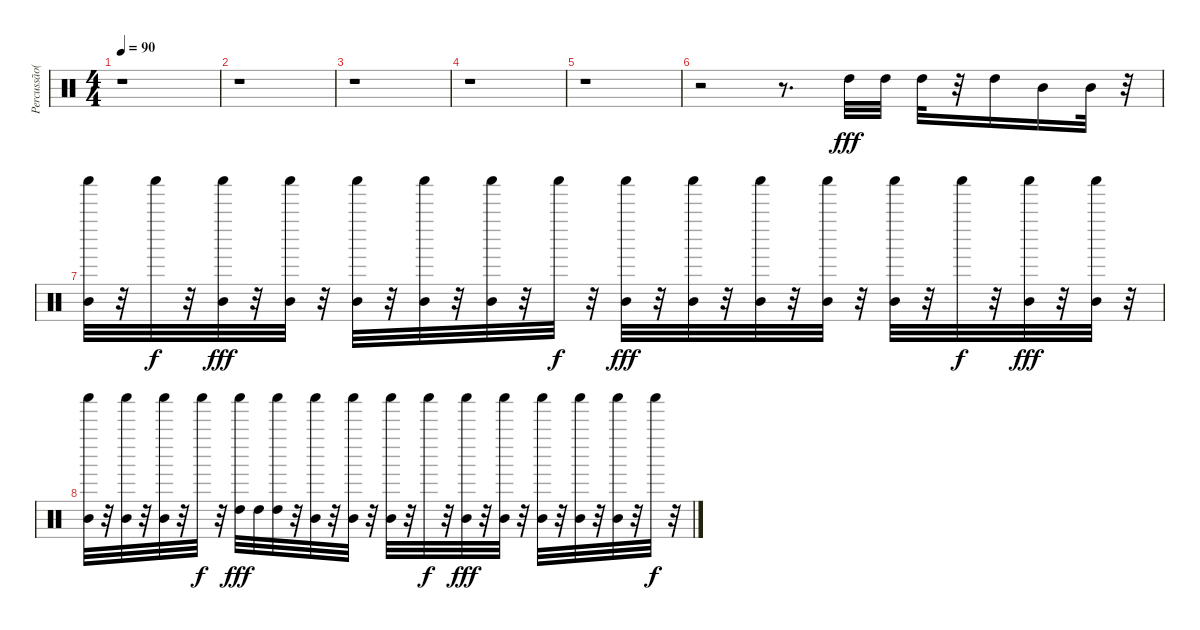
\track ("Percussão(Percussion)-1" "Percussão(") {instrument percussion}
\staff {score}
\articulation defaults
\ts (4 4)
\tempo 90
\clef neutral
\ks c
r.1{dy fff} |
r.1 |
r.1 |
r.1 |
r.1 |
r.2 r.8{d} "High Tom (hit)".32 "High Tom (hit)".32 "High Tom (hit)".32 r.32 "High Tom (hit)".16 "Mid Tom (hit)".16 "Mid Tom (hit)".32 r.32 |
("Mid Tom (hit)" "Shaker (hit)").32 r.32 "Shaker (hit)".32{dy f} r.32 ("Mid Tom (hit)" "Shaker (hit)").32{dy fff} r.32 ("Mid Tom (hit)" "Shaker (hit)").32 r.32 ("Mid Tom (hit)" "Shaker (hit)").32 r.32 ("Mid Tom (hit)" "Shaker (hit)").32 r.32 ("Mid Tom (hit)" "Shaker (hit)").32 r.32 "Shaker (hit)".32{dy f} r.32 ("Mid Tom (hit)" "Shaker (hit)").32{dy fff} r.32 ("Mid Tom (hit)" "Shaker (hit)").32 r.32 ("Mid Tom (hit)" "Shaker (hit)").32 r.32 ("Mid Tom (hit)" "Shaker (hit)").32 r.32 ("Mid Tom (hit)" "Shaker (hit)").32 r.32 "Shaker (hit)".32{dy f} r.32 ("Mid Tom (hit)" "Shaker (hit)").32{dy fff} r.32 ("Mid Tom (hit)" "Shaker (hit)").32 r.32 |
("Mid Tom (hit)" "Shaker (hit)").32 r.32 ("Mid Tom (hit)" "Shaker (hit)").32 r.32 ("Mid Tom (hit)" "Shaker (hit)").32 r.32 "Shaker (hit)".32{dy f} r.32 ("High Tom (hit)" "Shaker (hit)").32{dy fff} "High Tom (hit)".32 ("High Tom (hit)" "Shaker (hit)").32 r.32 ("Mid Tom (hit)" "Shaker (hit)").32 r.32 ("Mid Tom (hit)" "Shaker (hit)").32 r.32 ("Mid Tom (hit)" "Shaker (hit)").32 r.32 "Shaker (hit)".32{dy f} r.32 ("Mid Tom (hit)" "Shaker (hit)").32{dy fff} r.32 ("Mid Tom (hit)" "Shaker (hit)").32 r.32 ("Mid Tom (hit)" "Shaker (hit)").32 r.32 ("Mid Tom (hit)" "Shaker (hit)").32 r.32 ("Mid Tom (hit)" "Shaker (hit)").32 r.32 "Shaker (hit)".32{dy f} r.32
